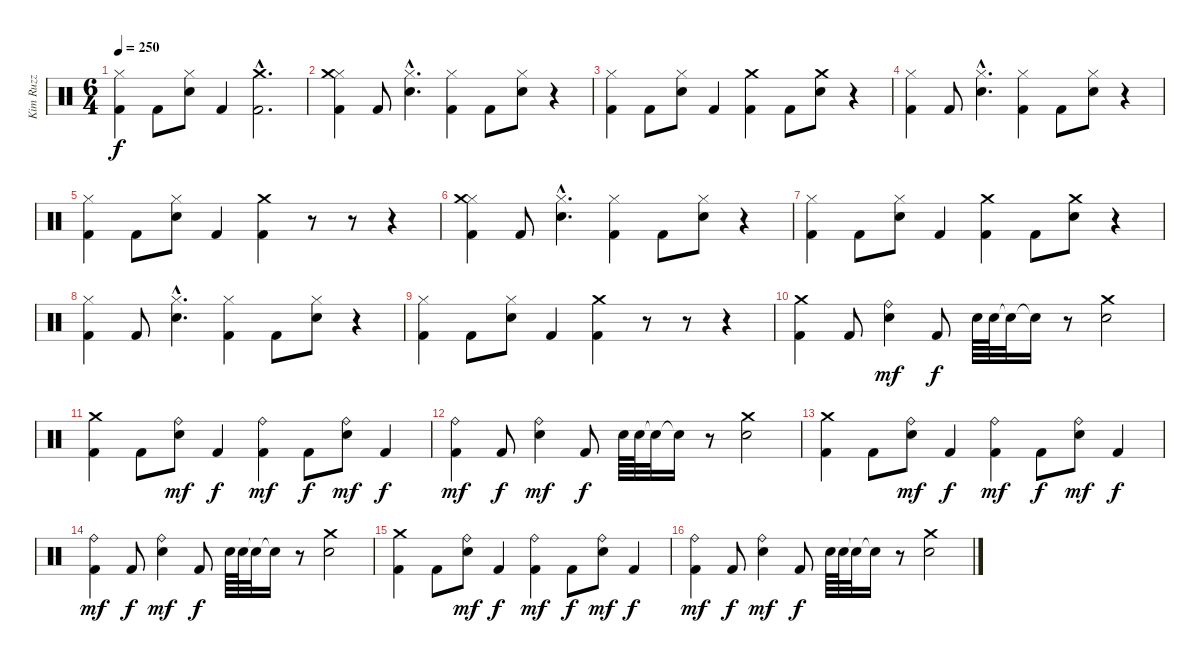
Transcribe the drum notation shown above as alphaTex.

\track ("Kim Ruzz" "Kim Ruzz") {instrument percussion}
\staff {score}
\articulation defaults
\ts (6 4)
\tempo 250
\clef neutral
\ks c
("Kick (hit) 2" "Hi-Hat (closed)").4{dy f} "Kick (hit) 2".8 ("Hi-Hat (closed)" "Snare (hit) 2").8 "Kick (hit) 2".4 ("Kick (hit) 2"{hac} "Crash medium (hit)"{hac}).2{d} |
("Kick (hit) 2" "Hi-Hat (closed)" "Crash medium (hit)").4 "Kick (hit) 2".8 ("Hi-Hat (closed)"{hac} "Snare (hit) 2"{hac}).4{d} ("Kick (hit) 2" "Hi-Hat (closed)").4 "Kick (hit) 2".8 ("Hi-Hat (closed)" "Snare (hit) 2").8 r.4 |
("Kick (hit) 2" "Hi-Hat (closed)").4 "Kick (hit) 2".8 ("Hi-Hat (closed)" "Snare (hit) 2").8 "Kick (hit) 2".4 ("Kick (hit) 2" "Crash medium (hit)").4 "Kick (hit) 2".8 ("Crash medium (hit)" "Snare (hit) 2").8 r.4 |
("Kick (hit) 2" "Hi-Hat (closed)").4 "Kick (hit) 2".8 ("Hi-Hat (closed)"{hac} "Snare (hit) 2"{hac}).4{d} ("Kick (hit) 2" "Hi-Hat (closed)").4 "Kick (hit) 2".8 ("Hi-Hat (closed)" "Snare (hit) 2").8 r.4 |
("Kick (hit) 2" "Hi-Hat (closed)").4 "Kick (hit) 2".8 ("Hi-Hat (closed)" "Snare (hit) 2").8 "Kick (hit) 2".4 ("Kick (hit) 2" "Crash medium (hit)").4 r.8 r.8 r.4 |
("Kick (hit) 2" "Hi-Hat (closed)" "Crash medium (hit)").4 "Kick (hit) 2".8 ("Hi-Hat (closed)"{hac} "Snare (hit) 2"{hac}).4{d} ("Kick (hit) 2" "Hi-Hat (closed)").4 "Kick (hit) 2".8 ("Hi-Hat (closed)" "Snare (hit) 2").8 r.4 |
("Kick (hit) 2" "Hi-Hat (closed)").4 "Kick (hit) 2".8 ("Hi-Hat (closed)" "Snare (hit) 2").8 "Kick (hit) 2".4 ("Kick (hit) 2" "Crash medium (hit)").4 "Kick (hit) 2".8 ("Crash medium (hit)" "Snare (hit) 2").8 r.4 |
("Kick (hit) 2" "Hi-Hat (closed)").4 "Kick (hit) 2".8 ("Hi-Hat (closed)"{hac} "Snare (hit) 2"{hac}).4{d} ("Kick (hit) 2" "Hi-Hat (closed)").4 "Kick (hit) 2".8 ("Hi-Hat (closed)" "Snare (hit) 2").8 r.4 |
("Kick (hit) 2" "Hi-Hat (closed)").4 "Kick (hit) 2".8 ("Hi-Hat (closed)" "Snare (hit) 2").8 "Kick (hit) 2".4 ("Kick (hit) 2" "Crash medium (hit)").4 r.8 r.8 r.4 |
("Kick (hit) 2" "Crash medium (hit)").4 "Kick (hit) 2".8 ("Ride (bell)" "Snare (hit) 2").4{dy mf} "Kick (hit) 2".8{dy f} "Snare (hit) 2".64 "Snare (hit) 2".64 "Snare (hit)"{t}.32 "Snare (hit)"{t}.16 r.8 ("Crash medium (hit)" "Snare (hit) 2").2 |
("Kick (hit) 2" "Crash medium (hit)").4 "Kick (hit) 2".8 ("Ride (bell)" "Snare (hit) 2").8{dy mf} "Kick (hit) 2".4{dy f} ("Kick (hit) 2" "Ride (bell)").4{dy mf} "Kick (hit) 2".8{dy f} ("Ride (bell)" "Snare (hit) 2").8{dy mf} "Kick (hit) 2".4{dy f} |
("Kick (hit) 2" "Ride (bell)").4{dy mf} "Kick (hit) 2".8{dy f} ("Ride (bell)" "Snare (hit) 2").4{dy mf} "Kick (hit) 2".8{dy f} "Snare (hit) 2".64 "Snare (hit) 2".64 "Snare (hit)"{t}.32 "Snare (hit)"{t}.16 r.8 ("Crash medium (hit)" "Snare (hit) 2").2 |
("Kick (hit) 2" "Crash medium (hit)").4 "Kick (hit) 2".8 ("Ride (bell)" "Snare (hit) 2").8{dy mf} "Kick (hit) 2".4{dy f} ("Kick (hit) 2" "Ride (bell)").4{dy mf} "Kick (hit) 2".8{dy f} ("Ride (bell)" "Snare (hit) 2").8{dy mf} "Kick (hit) 2".4{dy f} |
("Kick (hit) 2" "Ride (bell)").4{dy mf} "Kick (hit) 2".8{dy f} ("Ride (bell)" "Snare (hit) 2").4{dy mf} "Kick (hit) 2".8{dy f} "Snare (hit) 2".64 "Snare (hit) 2".64 "Snare (hit)"{t}.32 "Snare (hit)"{t}.16 r.8 ("Crash medium (hit)" "Snare (hit) 2").2 |
("Kick (hit) 2" "Crash medium (hit)").4 "Kick (hit) 2".8 ("Ride (bell)" "Snare (hit) 2").8{dy mf} "Kick (hit) 2".4{dy f} ("Kick (hit) 2" "Ride (bell)").4{dy mf} "Kick (hit) 2".8{dy f} ("Ride (bell)" "Snare (hit) 2").8{dy mf} "Kick (hit) 2".4{dy f} |
("Kick (hit) 2" "Ride (bell)").4{dy mf} "Kick (hit) 2".8{dy f} ("Ride (bell)" "Snare (hit) 2").4{dy mf} "Kick (hit) 2".8{dy f} "Snare (hit) 2".64 "Snare (hit) 2".64 "Snare (hit)"{t}.32 "Snare (hit)"{t}.16 r.8 ("Crash medium (hit)" "Snare (hit) 2").2
